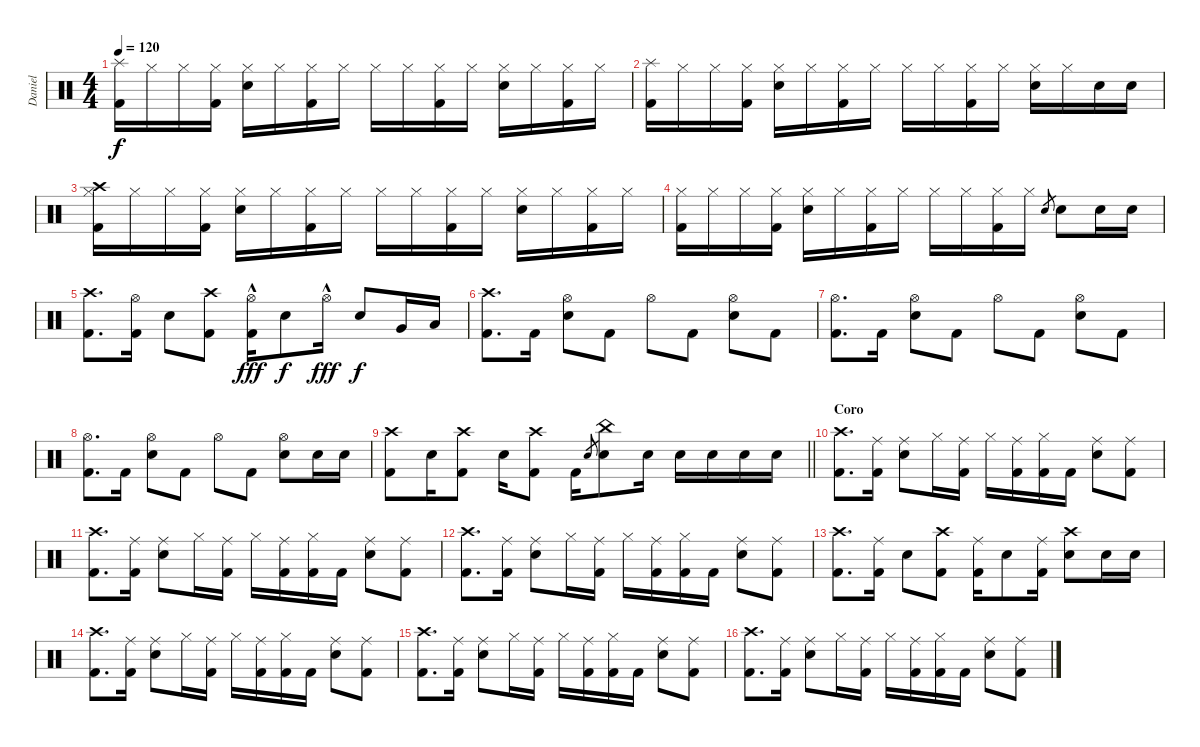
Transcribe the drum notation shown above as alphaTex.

\track ("Daniel" "Daniel") {instrument percussion}
\staff {score}
\articulation defaults
\ts (4 4)
\tempo 120
\clef neutral
\ks c
("Splash (hit)" "Kick (hit) 2").16{dy f} "Hi-Hat (closed)".16 "Hi-Hat (closed)".16 ("Hi-Hat (closed)" "Kick (hit) 2").16 ("Hi-Hat (closed)" "Snare (hit) 2").16 "Hi-Hat (closed)".16 ("Hi-Hat (closed)" "Kick (hit) 2").16 "Hi-Hat (closed)".16 "Hi-Hat (closed)".16 "Hi-Hat (closed)".16 ("Hi-Hat (closed)" "Kick (hit) 2").16 "Hi-Hat (closed)".16 ("Hi-Hat (closed)" "Snare (hit) 2").16 "Hi-Hat (closed)".16 ("Hi-Hat (closed)" "Kick (hit) 2").16 "Hi-Hat (closed)".16 |
("Splash (hit)" "Kick (hit) 2").16 "Hi-Hat (closed)".16 "Hi-Hat (closed)".16 ("Hi-Hat (closed)" "Kick (hit) 2").16 ("Hi-Hat (closed)" "Snare (hit) 2").16 "Hi-Hat (closed)".16 ("Hi-Hat (closed)" "Kick (hit) 2").16 "Hi-Hat (closed)".16 "Hi-Hat (closed)".16 "Hi-Hat (closed)".16 ("Hi-Hat (closed)" "Kick (hit) 2").16 "Hi-Hat (closed)".16 ("Hi-Hat (closed)" "Snare (hit) 2").16 "Hi-Hat (closed)".16 "Snare (hit) 2".16 "Snare (hit) 2".16 |
("Crash high (hit)" "Hi-Hat (closed)" "Kick (hit) 2").16 "Hi-Hat (closed)".16 "Hi-Hat (closed)".16 ("Hi-Hat (closed)" "Kick (hit) 2").16 ("Hi-Hat (closed)" "Snare (hit) 2").16 "Hi-Hat (closed)".16 ("Hi-Hat (closed)" "Kick (hit) 2").16 "Hi-Hat (closed)".16 "Hi-Hat (closed)".16 "Hi-Hat (closed)".16 ("Hi-Hat (closed)" "Kick (hit) 2").16 "Hi-Hat (closed)".16 ("Hi-Hat (closed)" "Snare (hit) 2").16 "Hi-Hat (closed)".16 ("Hi-Hat (closed)" "Kick (hit) 2").16 "Hi-Hat (closed)".16 |
("Hi-Hat (closed)" "Kick (hit) 2").16 "Hi-Hat (closed)".16 "Hi-Hat (closed)".16 ("Hi-Hat (closed)" "Kick (hit) 2").16 ("Hi-Hat (closed)" "Snare (hit) 2").16 "Hi-Hat (closed)".16 ("Hi-Hat (closed)" "Kick (hit) 2").16 "Hi-Hat (closed)".16 "Hi-Hat (closed)".16 "Hi-Hat (closed)".16 ("Hi-Hat (closed)" "Kick (hit) 2").16 "Hi-Hat (closed)".16 "Snare (hit) 2".8{gr} "Snare (hit) 2".8 "Snare (hit) 2".16 "Snare (hit) 2".16 |
("Crash high (hit)" "Kick (hit) 2").8{d} ("Hi-Hat (open)" "Kick (hit) 2").16 "Snare (hit) 2".8 ("Crash high (hit)" "Kick (hit) 2").8 ("Hi-Hat (open)"{hac} "Kick (hit) 2").16{dy fff} "Snare (hit) 2".8{dy f} "Hi-Hat (open)"{hac}.16{dy fff} "Snare (hit) 2".8{dy f} "Very Low Tom (hit)".16 "Low Floor Tom (hit)".16 |
("Crash high (hit)" "Kick (hit) 2").8{d} "Kick (hit) 2".16 ("Hi-Hat (open)" "Snare (hit) 2").8 "Kick (hit) 2".8 "Hi-Hat (open)".8 "Kick (hit) 2".8 ("Hi-Hat (open)" "Snare (hit) 2").8 "Kick (hit) 2".8 |
("Hi-Hat (open)" "Kick (hit) 2").8{d} "Kick (hit) 2".16 ("Hi-Hat (open)" "Snare (hit) 2").8 "Kick (hit) 2".8 "Hi-Hat (open)".8 "Kick (hit) 2".8 ("Hi-Hat (open)" "Snare (hit) 2").8 "Kick (hit) 2".8 |
("Hi-Hat (open)" "Kick (hit) 2").8{d} "Kick (hit) 2".16 ("Hi-Hat (open)" "Snare (hit) 2").8 "Kick (hit) 2".8 "Hi-Hat (open)".8 "Kick (hit) 2".8 ("Hi-Hat (open)" "Snare (hit) 2").8 "Snare (hit) 2".16 "Snare (hit) 2".16 |
\barLineRight lightlight
("Crash high (hit)" "Kick (hit) 2").8 "Snare (hit) 2".16 ("Crash high (hit)" "Kick (hit) 2").8 "Snare (hit) 2".16 ("Crash high (hit)" "Kick (hit) 2").8 "Kick (hit) 2".16 "Snare (hit) 2".8{gr} ("China (hit)" "Snare (hit) 2").8 "Snare (hit) 2".16 "Snare (hit) 2".16 "Snare (hit) 2".16 "Snare (hit) 2".16 "Snare (hit) 2".16 |
\section ("" "Coro")
("Crash high (hit)" "Kick (hit) 2").8{d} ("Ride (middle)" "Kick (hit) 2").16 ("Ride (middle)" "Snare (hit) 2").8 "Hi-Hat (closed)".16 ("Ride (middle)" "Kick (hit) 2").16 "Hi-Hat (closed)".16 ("Ride (middle)" "Kick (hit) 2").16 ("Hi-Hat (closed)" "Kick (hit) 2").16 "Kick (hit) 2".16 ("Ride (middle)" "Snare (hit) 2").8 ("Ride (middle)" "Kick (hit) 2").8 |
("Crash high (hit)" "Kick (hit) 2").8{d} ("Ride (middle)" "Kick (hit) 2").16 ("Ride (middle)" "Snare (hit) 2").8 "Hi-Hat (closed)".16 ("Ride (middle)" "Kick (hit) 2").16 "Hi-Hat (closed)".16 ("Ride (middle)" "Kick (hit) 2").16 ("Hi-Hat (closed)" "Kick (hit) 2").16 "Kick (hit) 2".16 ("Ride (middle)" "Snare (hit) 2").8 ("Ride (middle)" "Kick (hit) 2").8 |
("Crash high (hit)" "Kick (hit) 2").8{d} ("Ride (middle)" "Kick (hit) 2").16 ("Ride (middle)" "Snare (hit) 2").8 "Hi-Hat (closed)".16 ("Ride (middle)" "Kick (hit) 2").16 "Hi-Hat (closed)".16 ("Ride (middle)" "Kick (hit) 2").16 ("Hi-Hat (closed)" "Kick (hit) 2").16 "Kick (hit) 2".16 ("Ride (middle)" "Snare (hit) 2").8 ("Ride (middle)" "Kick (hit) 2").8 |
("Crash high (hit)" "Kick (hit) 2").8{d} ("Ride (middle)" "Kick (hit) 2").16 "Snare (hit) 2".8 ("Crash high (hit)" "Kick (hit) 2").8 ("Ride (middle)" "Kick (hit) 2").16 "Snare (hit) 2".8 ("Ride (middle)" "Kick (hit) 2").16 ("Crash high (hit)" "Snare (hit) 2").8 "Snare (hit) 2".16 "Snare (hit) 2".16 |
("Crash high (hit)" "Kick (hit) 2").8{d} ("Ride (middle)" "Kick (hit) 2").16 ("Ride (middle)" "Snare (hit) 2").8 "Hi-Hat (closed)".16 ("Ride (middle)" "Kick (hit) 2").16 "Hi-Hat (closed)".16 ("Ride (middle)" "Kick (hit) 2").16 ("Hi-Hat (closed)" "Kick (hit) 2").16 "Kick (hit) 2".16 ("Ride (middle)" "Snare (hit) 2").8 ("Ride (middle)" "Kick (hit) 2").8 |
("Crash high (hit)" "Kick (hit) 2").8{d} ("Ride (middle)" "Kick (hit) 2").16 ("Ride (middle)" "Snare (hit) 2").8 "Hi-Hat (closed)".16 ("Ride (middle)" "Kick (hit) 2").16 "Hi-Hat (closed)".16 ("Ride (middle)" "Kick (hit) 2").16 ("Hi-Hat (closed)" "Kick (hit) 2").16 "Kick (hit) 2".16 ("Ride (middle)" "Snare (hit) 2").8 ("Ride (middle)" "Kick (hit) 2").8 |
("Crash high (hit)" "Kick (hit) 2").8{d} ("Ride (middle)" "Kick (hit) 2").16 ("Ride (middle)" "Snare (hit) 2").8 "Hi-Hat (closed)".16 ("Ride (middle)" "Kick (hit) 2").16 "Hi-Hat (closed)".16 ("Ride (middle)" "Kick (hit) 2").16 ("Hi-Hat (closed)" "Kick (hit) 2").16 "Kick (hit) 2".16 ("Ride (middle)" "Snare (hit) 2").8 ("Ride (middle)" "Kick (hit) 2").8
